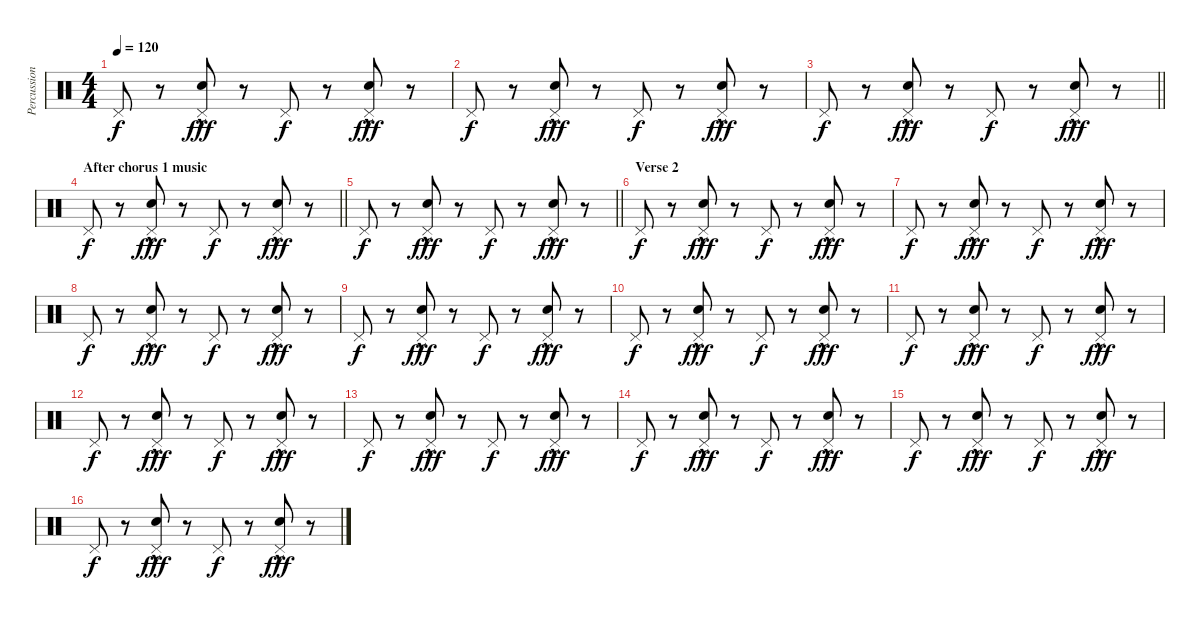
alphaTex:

\track ("Percussion" "Percussion") {instrument percussion}
\staff {score}
\articulation defaults
\ts (4 4)
\tempo 120
\clef neutral
\ks c "Pedal Hi-Hat (hit)".8{dy f}
r.8 ("Snare (hit) 2"{hac} "Pedal Hi-Hat (hit)").8{dy fff} r.8 "Pedal Hi-Hat (hit)".8{dy f} r.8 ("Snare (hit) 2"{hac} "Pedal Hi-Hat (hit)").8{dy fff} r.8 |
"Pedal Hi-Hat (hit)".8{dy f} r.8 ("Snare (hit) 2"{hac} "Pedal Hi-Hat (hit)").8{dy fff} r.8 "Pedal Hi-Hat (hit)".8{dy f} r.8 ("Snare (hit) 2"{hac} "Pedal Hi-Hat (hit)").8{dy fff} r.8 |
\barLineRight lightlight "Pedal Hi-Hat (hit)".8{dy f}
r.8 ("Snare (hit) 2"{hac} "Pedal Hi-Hat (hit)").8{dy fff} r.8 "Pedal Hi-Hat (hit)".8{dy f} r.8 ("Snare (hit) 2"{hac} "Pedal Hi-Hat (hit)").8{dy fff} r.8 |
\section ("" "After chorus 1 music")
\barLineRight lightlight "Pedal Hi-Hat (hit)".8{dy f}
r.8 ("Snare (hit) 2"{hac} "Pedal Hi-Hat (hit)").8{dy fff} r.8 "Pedal Hi-Hat (hit)".8{dy f} r.8 ("Snare (hit) 2"{hac} "Pedal Hi-Hat (hit)").8{dy fff} r.8 |
\barLineRight lightlight "Pedal Hi-Hat (hit)".8{dy f}
r.8 ("Snare (hit) 2"{hac} "Pedal Hi-Hat (hit)").8{dy fff} r.8 "Pedal Hi-Hat (hit)".8{dy f} r.8 ("Snare (hit) 2"{hac} "Pedal Hi-Hat (hit)").8{dy fff} r.8 |
\section ("" "Verse 2")
"Pedal Hi-Hat (hit)".8{dy f} r.8 ("Snare (hit) 2"{hac} "Pedal Hi-Hat (hit)").8{dy fff} r.8 "Pedal Hi-Hat (hit)".8{dy f} r.8 ("Snare (hit) 2"{hac} "Pedal Hi-Hat (hit)").8{dy fff} r.8 |
"Pedal Hi-Hat (hit)".8{dy f} r.8 ("Snare (hit) 2"{hac} "Pedal Hi-Hat (hit)").8{dy fff} r.8 "Pedal Hi-Hat (hit)".8{dy f} r.8 ("Snare (hit) 2"{hac} "Pedal Hi-Hat (hit)").8{dy fff} r.8 |
"Pedal Hi-Hat (hit)".8{dy f} r.8 ("Snare (hit) 2"{hac} "Pedal Hi-Hat (hit)").8{dy fff} r.8 "Pedal Hi-Hat (hit)".8{dy f} r.8 ("Snare (hit) 2"{hac} "Pedal Hi-Hat (hit)").8{dy fff} r.8 |
"Pedal Hi-Hat (hit)".8{dy f} r.8 ("Snare (hit) 2"{hac} "Pedal Hi-Hat (hit)").8{dy fff} r.8 "Pedal Hi-Hat (hit)".8{dy f} r.8 ("Snare (hit) 2"{hac} "Pedal Hi-Hat (hit)").8{dy fff} r.8 |
"Pedal Hi-Hat (hit)".8{dy f} r.8 ("Snare (hit) 2"{hac} "Pedal Hi-Hat (hit)").8{dy fff} r.8 "Pedal Hi-Hat (hit)".8{dy f} r.8 ("Snare (hit) 2"{hac} "Pedal Hi-Hat (hit)").8{dy fff} r.8 |
"Pedal Hi-Hat (hit)".8{dy f} r.8 ("Snare (hit) 2"{hac} "Pedal Hi-Hat (hit)").8{dy fff} r.8 "Pedal Hi-Hat (hit)".8{dy f} r.8 ("Snare (hit) 2"{hac} "Pedal Hi-Hat (hit)").8{dy fff} r.8 |
"Pedal Hi-Hat (hit)".8{dy f} r.8 ("Snare (hit) 2"{hac} "Pedal Hi-Hat (hit)").8{dy fff} r.8 "Pedal Hi-Hat (hit)".8{dy f} r.8 ("Snare (hit) 2"{hac} "Pedal Hi-Hat (hit)").8{dy fff} r.8 |
"Pedal Hi-Hat (hit)".8{dy f} r.8 ("Snare (hit) 2"{hac} "Pedal Hi-Hat (hit)").8{dy fff} r.8 "Pedal Hi-Hat (hit)".8{dy f} r.8 ("Snare (hit) 2"{hac} "Pedal Hi-Hat (hit)").8{dy fff} r.8 |
"Pedal Hi-Hat (hit)".8{dy f} r.8 ("Snare (hit) 2"{hac} "Pedal Hi-Hat (hit)").8{dy fff} r.8 "Pedal Hi-Hat (hit)".8{dy f} r.8 ("Snare (hit) 2"{hac} "Pedal Hi-Hat (hit)").8{dy fff} r.8 |
"Pedal Hi-Hat (hit)".8{dy f} r.8 ("Snare (hit) 2"{hac} "Pedal Hi-Hat (hit)").8{dy fff} r.8 "Pedal Hi-Hat (hit)".8{dy f} r.8 ("Snare (hit) 2"{hac} "Pedal Hi-Hat (hit)").8{dy fff} r.8 |
"Pedal Hi-Hat (hit)".8{dy f} r.8 ("Snare (hit) 2"{hac} "Pedal Hi-Hat (hit)").8{dy fff} r.8 "Pedal Hi-Hat (hit)".8{dy f} r.8 ("Snare (hit) 2"{hac} "Pedal Hi-Hat (hit)").8{dy fff} r.8
